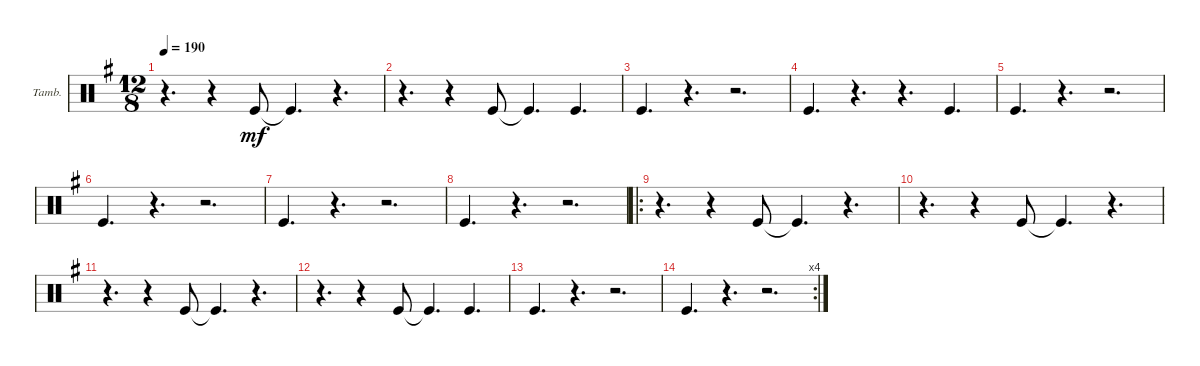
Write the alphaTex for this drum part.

\defaultSystemsLayout 4
\bracketExtendMode groupsimilarinstruments
\firstSystemTrackNameOrientation horizontal
\otherSystemsTrackNameOrientation horizontal
\track ("Tambourine" "Tamb.") {instrument percussion}
\staff {score}
\articulation defaults
\ts (12 8)
\tempo 190
\clef neutral
\ks g
r.4{d dy mf} r.4 "Kick (hit)".8 "Kick (hit)"{t}.4{d} r.4{d} |
r.4{d} r.4 "Kick (hit)".8 "Kick (hit)"{t}.4{d} "Kick (hit)".4{d} |
"Kick (hit)".4{d} r.4{d} r.2{d} |
"Kick (hit)".4{d} r.4{d} r.4{d} "Kick (hit)".4{d} |
"Kick (hit)".4{d} r.4{d} r.2{d} |
"Kick (hit)".4{d} r.4{d} r.2{d} |
"Kick (hit)".4{d} r.4{d} r.2{d} |
"Kick (hit)".4{d} r.4{d} r.2{d} |
\ro
r.4{d} r.4 "Kick (hit)".8 "Kick (hit)"{t}.4{d} r.4{d} |
r.4{d} r.4 "Kick (hit)".8 "Kick (hit)"{t}.4{d} r.4{d} |
r.4{d} r.4 "Kick (hit)".8 "Kick (hit)"{t}.4{d} r.4{d} |
r.4{d} r.4 "Kick (hit)".8 "Kick (hit)"{t}.4{d} "Kick (hit)".4{d} |
"Kick (hit)".4{d} r.4{d} r.2{d} |
\rc 4 "Kick (hit)".4{d}
r.4{d} r.2{d}
